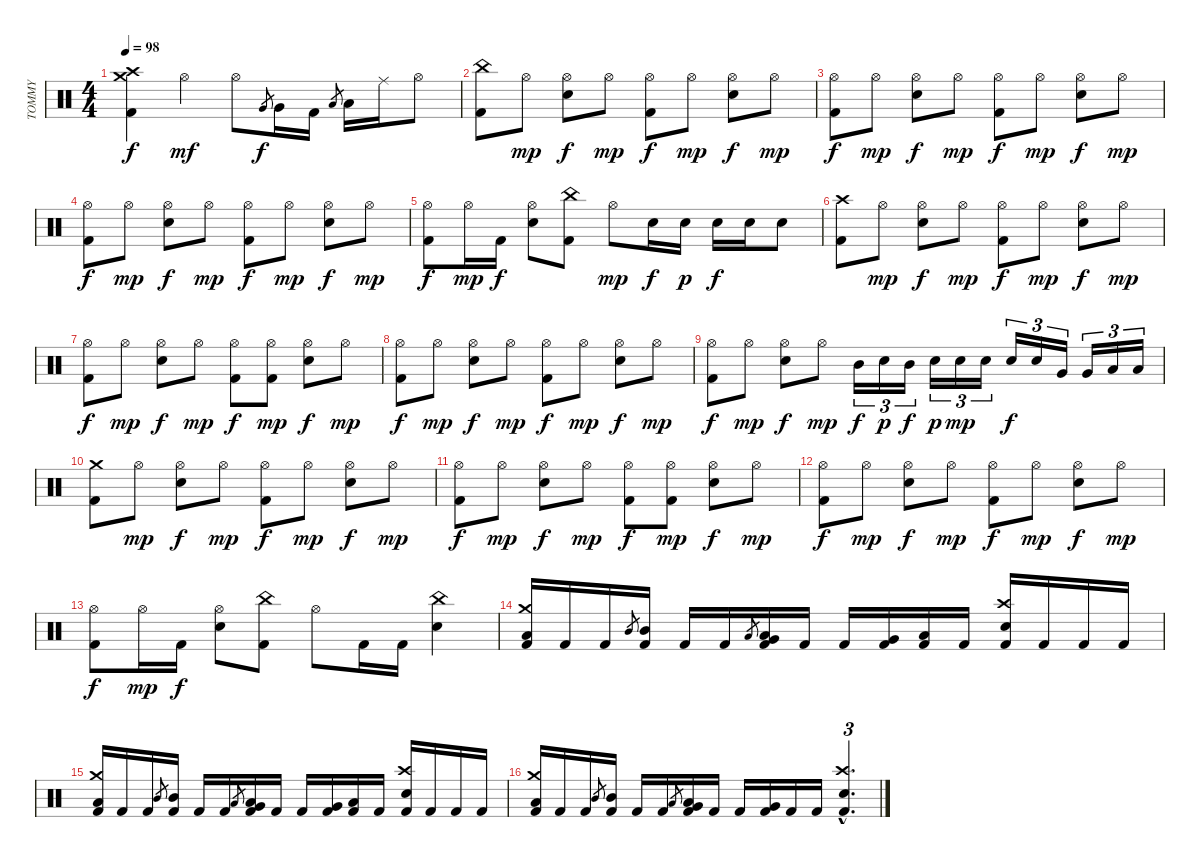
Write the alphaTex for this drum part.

\track ("TOMMY" "TOMMY") {instrument percussion}
\staff {score}
\articulation defaults
\ts (4 4)
\tempo 98
\clef neutral
\ks c
("Kick (hit) 2" "Crash high (hit)" "Crash medium (hit)").4{dy f} "Hi-Hat (open)".4{dy mf} "Hi-Hat (open)".8 "Very Low Tom (hit)".8{gr dy f} "Very Low Tom (hit)".16 "Kick (hit) 2".16 "Low Floor Tom (hit)".8{gr} "Low Floor Tom (hit)".16 "Ride (middle)".16 "Hi-Hat (open)".8 |
("Kick (hit) 2" "China (hit)").8 "Hi-Hat (open)".8{dy mp} ("Snare (hit) 2" "Hi-Hat (open)").8{dy f} "Hi-Hat (open)".8{dy mp} ("Kick (hit) 2" "Hi-Hat (open)").8{dy f} "Hi-Hat (open)".8{dy mp} ("Snare (hit) 2" "Hi-Hat (open)").8{dy f} "Hi-Hat (open)".8{dy mp} |
("Kick (hit) 2" "Hi-Hat (open)").8{dy f} "Hi-Hat (open)".8{dy mp} ("Snare (hit) 2" "Hi-Hat (open)").8{dy f} "Hi-Hat (open)".8{dy mp} ("Kick (hit) 2" "Hi-Hat (open)").8{dy f} "Hi-Hat (open)".8{dy mp} ("Snare (hit) 2" "Hi-Hat (open)").8{dy f} "Hi-Hat (open)".8{dy mp} |
("Kick (hit) 2" "Hi-Hat (open)").8{dy f} "Hi-Hat (open)".8{dy mp} ("Snare (hit) 2" "Hi-Hat (open)").8{dy f} "Hi-Hat (open)".8{dy mp} ("Kick (hit) 2" "Hi-Hat (open)").8{dy f} "Hi-Hat (open)".8{dy mp} ("Snare (hit) 2" "Hi-Hat (open)").8{dy f} "Hi-Hat (open)".8{dy mp} |
("Kick (hit) 2" "Hi-Hat (open)").8{dy f} "Hi-Hat (open)".16{dy mp} "Kick (hit) 2".16{dy f} ("Snare (hit) 2" "Hi-Hat (open)").8 ("Kick (hit) 2" "China (hit)").8 "Hi-Hat (open)".8{dy mp} "Snare (hit) 2".16{dy f} "Snare (hit) 2".16{dy p} "Snare (hit) 2".16{dy f} "Snare (hit) 2".16 "Snare (hit) 2".8 |
("Kick (hit) 2" "Crash high (hit)").8 "Hi-Hat (open)".8{dy mp} ("Snare (hit) 2" "Hi-Hat (open)").8{dy f} "Hi-Hat (open)".8{dy mp} ("Kick (hit) 2" "Hi-Hat (open)").8{dy f} "Hi-Hat (open)".8{dy mp} ("Snare (hit) 2" "Hi-Hat (open)").8{dy f} "Hi-Hat (open)".8{dy mp} |
("Kick (hit) 2" "Hi-Hat (open)").8{dy f} "Hi-Hat (open)".8{dy mp} ("Snare (hit) 2" "Hi-Hat (open)").8{dy f} "Hi-Hat (open)".8{dy mp} ("Kick (hit) 2" "Hi-Hat (open)").8{dy f} ("Kick (hit) 2" "Hi-Hat (open)").8{dy mp} ("Snare (hit) 2" "Hi-Hat (open)").8{dy f} "Hi-Hat (open)".8{dy mp} |
("Kick (hit) 2" "Hi-Hat (open)").8{dy f} "Hi-Hat (open)".8{dy mp} ("Snare (hit) 2" "Hi-Hat (open)").8{dy f} "Hi-Hat (open)".8{dy mp} ("Kick (hit) 2" "Hi-Hat (open)").8{dy f} "Hi-Hat (open)".8{dy mp} ("Snare (hit) 2" "Hi-Hat (open)").8{dy f} "Hi-Hat (open)".8{dy mp} |
("Kick (hit) 2" "Hi-Hat (open)").8{dy f} "Hi-Hat (open)".8{dy mp} ("Snare (hit) 2" "Hi-Hat (open)").8{dy f} "Hi-Hat (open)".8{dy mp} "Mid Tom (hit)".16{tu (3 2) dy f} "Snare (hit) 2".16{tu (3 2) dy p} "Mid Tom (hit)".16{tu (3 2) dy f} "Snare (hit) 2".16{tu (3 2) dy p} "Snare (hit) 2".16{tu (3 2) dy mp} "Snare (hit) 2".16{tu (3 2)} "Snare (hit) 2".16{tu (3 2) dy f} "Snare (hit) 2".16{tu (3 2)} "Very Low Tom (hit)".16{tu (3 2)} "Very Low Tom (hit)".16{tu (3 2)} "Low Floor Tom (hit)".16{tu (3 2)} "Low Floor Tom (hit)".16{tu (3 2)} |
("Kick (hit) 2" "Crash medium (hit)").8 "Hi-Hat (open)".8{dy mp} ("Snare (hit) 2" "Hi-Hat (open)").8{dy f} "Hi-Hat (open)".8{dy mp} ("Kick (hit) 2" "Hi-Hat (open)").8{dy f} "Hi-Hat (open)".8{dy mp} ("Snare (hit) 2" "Hi-Hat (open)").8{dy f} "Hi-Hat (open)".8{dy mp} |
("Kick (hit) 2" "Hi-Hat (open)").8{dy f} "Hi-Hat (open)".8{dy mp} ("Snare (hit) 2" "Hi-Hat (open)").8{dy f} "Hi-Hat (open)".8{dy mp} ("Kick (hit) 2" "Hi-Hat (open)").8{dy f} ("Kick (hit) 2" "Hi-Hat (open)").8{dy mp} ("Snare (hit) 2" "Hi-Hat (open)").8{dy f} "Hi-Hat (open)".8{dy mp} |
("Kick (hit) 2" "Hi-Hat (open)").8{dy f} "Hi-Hat (open)".8{dy mp} ("Snare (hit) 2" "Hi-Hat (open)").8{dy f} "Hi-Hat (open)".8{dy mp} ("Kick (hit) 2" "Hi-Hat (open)").8{dy f} "Hi-Hat (open)".8{dy mp} ("Snare (hit) 2" "Hi-Hat (open)").8{dy f} "Hi-Hat (open)".8{dy mp} |
("Kick (hit) 2" "Hi-Hat (open)").8{dy f} "Hi-Hat (open)".16{dy mp} "Kick (hit) 2".16{dy f} ("Snare (hit) 2" "Hi-Hat (open)").8 ("Kick (hit) 2" "China (hit)").8 "Hi-Hat (open)".8 "Kick (hit) 2".16 "Kick (hit) 2".16 ("Snare (hit) 2" "China (hit)").4 |
("Kick (hit) 2" "Crash medium (hit)" "Low Floor Tom (hit)").16 "Kick (hit) 2".16 "Kick (hit) 2".16 "Mid Tom (hit)".8{gr} ("Kick (hit) 2" "Mid Tom (hit)").16 "Kick (hit) 2".16 "Kick (hit) 2".16 "Low Floor Tom (hit)".8{gr} ("Kick (hit) 2" "Very Low Tom (hit)" "Low Floor Tom (hit)").16 "Kick (hit) 2".16 "Kick (hit) 2".16 ("Kick (hit) 2" "Very Low Tom (hit)").16 ("Kick (hit) 2" "Low Floor Tom (hit)").16 "Kick (hit) 2".16 ("Snare (hit) 2" "Kick (hit) 2" "Crash high (hit)").16 "Kick (hit) 2".16 "Kick (hit) 2".16 "Kick (hit) 2".16 |
("Kick (hit) 2" "Crash medium (hit)" "Low Floor Tom (hit)").16 "Kick (hit) 2".16 "Kick (hit) 2".16 "Mid Tom (hit)".8{gr} ("Kick (hit) 2" "Mid Tom (hit)").16 "Kick (hit) 2".16 "Kick (hit) 2".16 "Low Floor Tom (hit)".8{gr} ("Kick (hit) 2" "Very Low Tom (hit)" "Low Floor Tom (hit)").16 "Kick (hit) 2".16 "Kick (hit) 2".16 ("Kick (hit) 2" "Very Low Tom (hit)").16 ("Kick (hit) 2" "Low Floor Tom (hit)").16 "Kick (hit) 2".16 ("Snare (hit) 2" "Kick (hit) 2" "Crash high (hit)").16 "Kick (hit) 2".16 "Kick (hit) 2".16 "Kick (hit) 2".16 |
("Kick (hit) 2" "Crash medium (hit)" "Low Floor Tom (hit)").16 "Kick (hit) 2".16 "Kick (hit) 2".16 "Mid Tom (hit)".8{gr} ("Kick (hit) 2" "Mid Tom (hit)").16 "Kick (hit) 2".16 "Kick (hit) 2".16 "Low Floor Tom (hit)".8{gr} ("Kick (hit) 2" "Very Low Tom (hit)" "Low Floor Tom (hit)").16 "Kick (hit) 2".16 "Kick (hit) 2".16 ("Kick (hit) 2" "Very Low Tom (hit)").16 "Kick (hit) 2".16 "Kick (hit) 2".16 ("Snare (hit) 2"{hac} "Kick (hit) 2"{hac} "Crash high (hit)"{hac}).4{d tu (3 2)}
